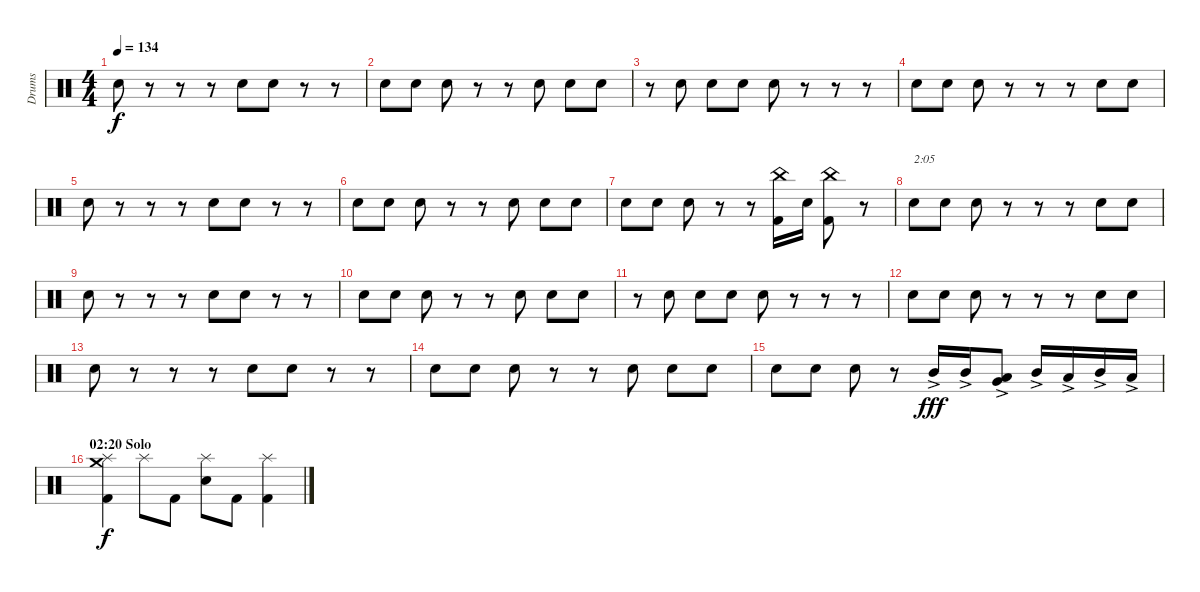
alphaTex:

\track ("Drums" "Drums") {instrument percussion}
\staff {score}
\articulation defaults
\ts (4 4)
\tempo 134
\clef neutral
\ks c "Electric Snare (hit)".8{dy f}
r.8 r.8 r.8 "Electric Snare (hit)".8 "Electric Snare (hit)".8 r.8 r.8 |
"Electric Snare (hit)".8 "Electric Snare (hit)".8 "Electric Snare (hit)".8 r.8 r.8 "Electric Snare (hit)".8 "Electric Snare (hit)".8 "Electric Snare (hit)".8 |
r.8 "Electric Snare (hit)".8 "Electric Snare (hit)".8 "Electric Snare (hit)".8 "Electric Snare (hit)".8 r.8 r.8 r.8 |
"Electric Snare (hit)".8 "Electric Snare (hit)".8 "Electric Snare (hit)".8 r.8 r.8 r.8 "Electric Snare (hit)".8 "Electric Snare (hit)".8 |
"Electric Snare (hit)".8 r.8 r.8 r.8 "Electric Snare (hit)".8 "Electric Snare (hit)".8 r.8 r.8 |
"Electric Snare (hit)".8 "Electric Snare (hit)".8 "Electric Snare (hit)".8 r.8 r.8 "Electric Snare (hit)".8 "Electric Snare (hit)".8 "Electric Snare (hit)".8 |
"Electric Snare (hit)".8 "Electric Snare (hit)".8 "Electric Snare (hit)".8 r.8 r.8 ("Kick (hit) 2" "China (hit)").16 "Electric Snare (hit)".16 ("Kick (hit) 2" "China (hit)").8 r.8 |
"Electric Snare (hit)".8{txt "2:05"} "Electric Snare (hit)".8 "Electric Snare (hit)".8 r.8 r.8 r.8 "Electric Snare (hit)".8 "Electric Snare (hit)".8 |
"Electric Snare (hit)".8 r.8 r.8 r.8 "Electric Snare (hit)".8 "Electric Snare (hit)".8 r.8 r.8 |
"Electric Snare (hit)".8 "Electric Snare (hit)".8 "Electric Snare (hit)".8 r.8 r.8 "Electric Snare (hit)".8 "Electric Snare (hit)".8 "Electric Snare (hit)".8 |
r.8 "Electric Snare (hit)".8 "Electric Snare (hit)".8 "Electric Snare (hit)".8 "Electric Snare (hit)".8 r.8 r.8 r.8 |
"Electric Snare (hit)".8 "Electric Snare (hit)".8 "Electric Snare (hit)".8 r.8 r.8 r.8 "Electric Snare (hit)".8 "Electric Snare (hit)".8 |
"Electric Snare (hit)".8 r.8 r.8 r.8 "Electric Snare (hit)".8 "Electric Snare (hit)".8 r.8 r.8 |
"Electric Snare (hit)".8 "Electric Snare (hit)".8 "Electric Snare (hit)".8 r.8 r.8 "Electric Snare (hit)".8 "Electric Snare (hit)".8 "Electric Snare (hit)".8 |
"Electric Snare (hit)".8 "Electric Snare (hit)".8 "Electric Snare (hit)".8 r.8 "Mid Tom (hit)"{ac}.16{dy fff} "Mid Tom (hit)"{ac}.16 ("Low Tom (hit)"{ac} "Very Low Tom (hit)"{ac}).8 "Mid Tom (hit)"{ac}.16 "Low Tom (hit)"{ac}.16 "Mid Tom (hit)"{ac}.16 "Low Tom (hit)"{ac}.16 |
\section ("" "02:20 Solo")
("Kick (hit) 2" "Splash (hit)" "Crash medium (hit)").4{dy f} "Splash (hit)".8 "Kick (hit) 2".8 ("Electric Snare (hit)" "Splash (hit)").8 "Kick (hit) 2".8 ("Kick (hit) 2" "Splash (hit)").4
